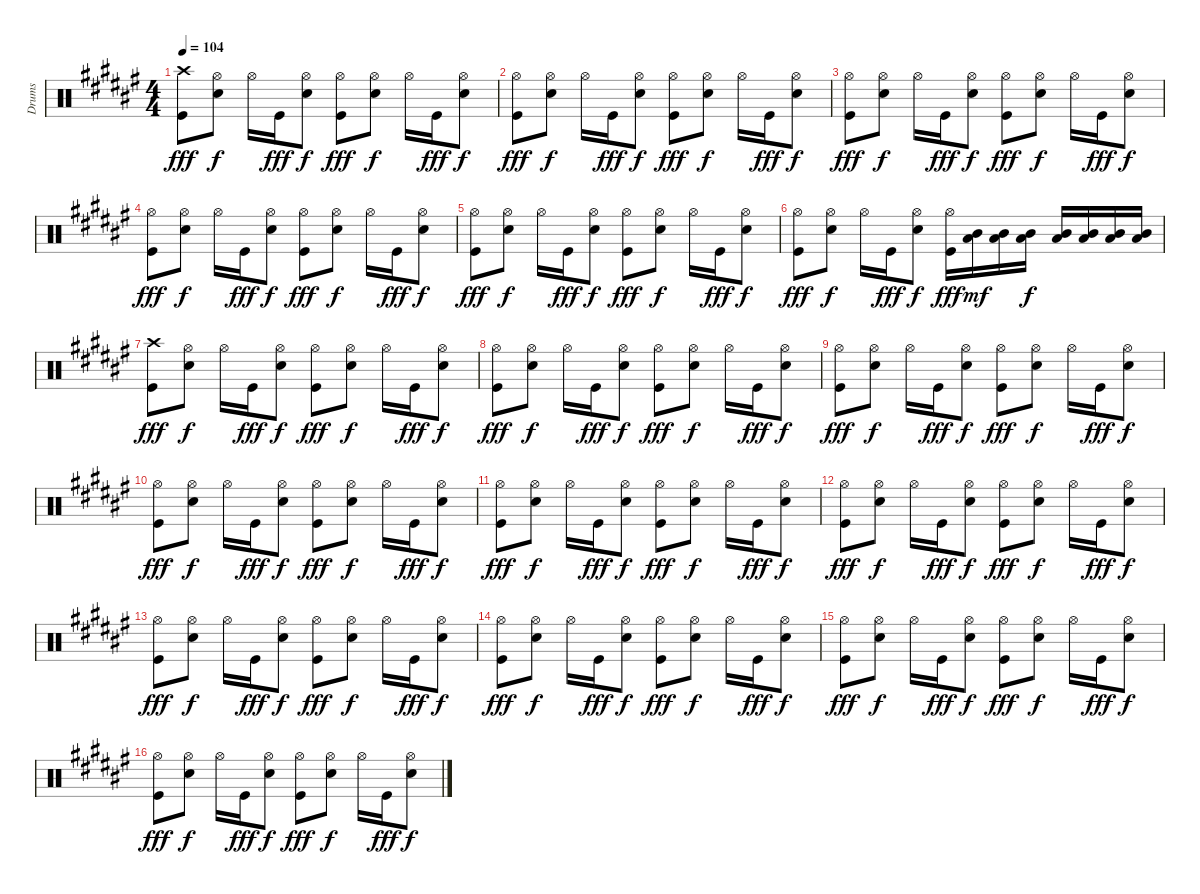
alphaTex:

\track ("Drums" "Drums") {instrument percussion}
\staff {score}
\articulation defaults
\ts (4 4)
\tempo 104
\clef neutral
\ks f#
("Crash high (hit)" "Kick (hit)").8{dy fff} ("Hi-Hat (open)" "Snare (hit) 2").8{dy f} "Hi-Hat (open)".16 "Kick (hit)".16{dy fff} ("Hi-Hat (open)" "Snare (hit) 2").8{dy f} ("Hi-Hat (open)" "Kick (hit)").8{dy fff} ("Hi-Hat (open)" "Snare (hit) 2").8{dy f} "Hi-Hat (open)".16 "Kick (hit)".16{dy fff} ("Hi-Hat (open)" "Snare (hit) 2").8{dy f} |
("Hi-Hat (open)" "Kick (hit)").8{dy fff} ("Hi-Hat (open)" "Snare (hit) 2").8{dy f} "Hi-Hat (open)".16 "Kick (hit)".16{dy fff} ("Hi-Hat (open)" "Snare (hit) 2").8{dy f} ("Hi-Hat (open)" "Kick (hit)").8{dy fff} ("Hi-Hat (open)" "Snare (hit) 2").8{dy f} "Hi-Hat (open)".16 "Kick (hit)".16{dy fff} ("Hi-Hat (open)" "Snare (hit) 2").8{dy f} |
("Hi-Hat (open)" "Kick (hit)").8{dy fff} ("Hi-Hat (open)" "Snare (hit) 2").8{dy f} "Hi-Hat (open)".16 "Kick (hit)".16{dy fff} ("Hi-Hat (open)" "Snare (hit) 2").8{dy f} ("Hi-Hat (open)" "Kick (hit)").8{dy fff} ("Hi-Hat (open)" "Snare (hit) 2").8{dy f} "Hi-Hat (open)".16 "Kick (hit)".16{dy fff} ("Hi-Hat (open)" "Snare (hit) 2").8{dy f} |
("Hi-Hat (open)" "Kick (hit)").8{dy fff} ("Hi-Hat (open)" "Snare (hit) 2").8{dy f} "Hi-Hat (open)".16 "Kick (hit)".16{dy fff} ("Hi-Hat (open)" "Snare (hit) 2").8{dy f} ("Hi-Hat (open)" "Kick (hit)").8{dy fff} ("Hi-Hat (open)" "Snare (hit) 2").8{dy f} "Hi-Hat (open)".16 "Kick (hit)".16{dy fff} ("Hi-Hat (open)" "Snare (hit) 2").8{dy f} |
("Hi-Hat (open)" "Kick (hit)").8{dy fff} ("Hi-Hat (open)" "Snare (hit) 2").8{dy f} "Hi-Hat (open)".16 "Kick (hit)".16{dy fff} ("Hi-Hat (open)" "Snare (hit) 2").8{dy f} ("Hi-Hat (open)" "Kick (hit)").8{dy fff} ("Hi-Hat (open)" "Snare (hit) 2").8{dy f} "Hi-Hat (open)".16 "Kick (hit)".16{dy fff} ("Hi-Hat (open)" "Snare (hit) 2").8{dy f} |
("Hi-Hat (open)" "Kick (hit)").8{dy fff} ("Hi-Hat (open)" "Snare (hit) 2").8{dy f} "Hi-Hat (open)".16 "Kick (hit)".16{dy fff} ("Hi-Hat (open)" "Snare (hit) 2").8{dy f} ("Hi-Hat (open)" "Kick (hit)").16{dy fff} ("Low Tom (hit)" "Mid Tom (hit)").16{dy mf} ("Low Tom (hit)" "Mid Tom (hit)").16 ("Low Tom (hit)" "Mid Tom (hit)").16{dy f} ("Low Tom (hit)" "Mid Tom (hit)").16 ("Low Tom (hit)" "Mid Tom (hit)").16 ("Low Tom (hit)" "Mid Tom (hit)").16 ("Low Tom (hit)" "Mid Tom (hit)").16 |
("Crash high (hit)" "Kick (hit)").8{dy fff} ("Hi-Hat (open)" "Snare (hit) 2").8{dy f} "Hi-Hat (open)".16 "Kick (hit)".16{dy fff} ("Hi-Hat (open)" "Snare (hit) 2").8{dy f} ("Hi-Hat (open)" "Kick (hit)").8{dy fff} ("Hi-Hat (open)" "Snare (hit) 2").8{dy f} "Hi-Hat (open)".16 "Kick (hit)".16{dy fff} ("Hi-Hat (open)" "Snare (hit) 2").8{dy f} |
("Hi-Hat (open)" "Kick (hit)").8{dy fff} ("Hi-Hat (open)" "Snare (hit) 2").8{dy f} "Hi-Hat (open)".16 "Kick (hit)".16{dy fff} ("Hi-Hat (open)" "Snare (hit) 2").8{dy f} ("Hi-Hat (open)" "Kick (hit)").8{dy fff} ("Hi-Hat (open)" "Snare (hit) 2").8{dy f} "Hi-Hat (open)".16 "Kick (hit)".16{dy fff} ("Hi-Hat (open)" "Snare (hit) 2").8{dy f} |
("Hi-Hat (open)" "Kick (hit)").8{dy fff} ("Hi-Hat (open)" "Snare (hit) 2").8{dy f} "Hi-Hat (open)".16 "Kick (hit)".16{dy fff} ("Hi-Hat (open)" "Snare (hit) 2").8{dy f} ("Hi-Hat (open)" "Kick (hit)").8{dy fff} ("Hi-Hat (open)" "Snare (hit) 2").8{dy f} "Hi-Hat (open)".16 "Kick (hit)".16{dy fff} ("Hi-Hat (open)" "Snare (hit) 2").8{dy f} |
("Hi-Hat (open)" "Kick (hit)").8{dy fff} ("Hi-Hat (open)" "Snare (hit) 2").8{dy f} "Hi-Hat (open)".16 "Kick (hit)".16{dy fff} ("Hi-Hat (open)" "Snare (hit) 2").8{dy f} ("Hi-Hat (open)" "Kick (hit)").8{dy fff} ("Hi-Hat (open)" "Snare (hit) 2").8{dy f} "Hi-Hat (open)".16 "Kick (hit)".16{dy fff} ("Hi-Hat (open)" "Snare (hit) 2").8{dy f} |
("Hi-Hat (open)" "Kick (hit)").8{dy fff} ("Hi-Hat (open)" "Snare (hit) 2").8{dy f} "Hi-Hat (open)".16 "Kick (hit)".16{dy fff} ("Hi-Hat (open)" "Snare (hit) 2").8{dy f} ("Hi-Hat (open)" "Kick (hit)").8{dy fff} ("Hi-Hat (open)" "Snare (hit) 2").8{dy f} "Hi-Hat (open)".16 "Kick (hit)".16{dy fff} ("Hi-Hat (open)" "Snare (hit) 2").8{dy f} |
("Hi-Hat (open)" "Kick (hit)").8{dy fff} ("Hi-Hat (open)" "Snare (hit) 2").8{dy f} "Hi-Hat (open)".16 "Kick (hit)".16{dy fff} ("Hi-Hat (open)" "Snare (hit) 2").8{dy f} ("Hi-Hat (open)" "Kick (hit)").8{dy fff} ("Hi-Hat (open)" "Snare (hit) 2").8{dy f} "Hi-Hat (open)".16 "Kick (hit)".16{dy fff} ("Hi-Hat (open)" "Snare (hit) 2").8{dy f} |
("Hi-Hat (open)" "Kick (hit)").8{dy fff} ("Hi-Hat (open)" "Snare (hit) 2").8{dy f} "Hi-Hat (open)".16 "Kick (hit)".16{dy fff} ("Hi-Hat (open)" "Snare (hit) 2").8{dy f} ("Hi-Hat (open)" "Kick (hit)").8{dy fff} ("Hi-Hat (open)" "Snare (hit) 2").8{dy f} "Hi-Hat (open)".16 "Kick (hit)".16{dy fff} ("Hi-Hat (open)" "Snare (hit) 2").8{dy f} |
("Hi-Hat (open)" "Kick (hit)").8{dy fff} ("Hi-Hat (open)" "Snare (hit) 2").8{dy f} "Hi-Hat (open)".16 "Kick (hit)".16{dy fff} ("Hi-Hat (open)" "Snare (hit) 2").8{dy f} ("Hi-Hat (open)" "Kick (hit)").8{dy fff} ("Hi-Hat (open)" "Snare (hit) 2").8{dy f} "Hi-Hat (open)".16 "Kick (hit)".16{dy fff} ("Hi-Hat (open)" "Snare (hit) 2").8{dy f} |
("Hi-Hat (open)" "Kick (hit)").8{dy fff} ("Hi-Hat (open)" "Snare (hit) 2").8{dy f} "Hi-Hat (open)".16 "Kick (hit)".16{dy fff} ("Hi-Hat (open)" "Snare (hit) 2").8{dy f} ("Hi-Hat (open)" "Kick (hit)").8{dy fff} ("Hi-Hat (open)" "Snare (hit) 2").8{dy f} "Hi-Hat (open)".16 "Kick (hit)".16{dy fff} ("Hi-Hat (open)" "Snare (hit) 2").8{dy f} |
("Hi-Hat (open)" "Kick (hit)").8{dy fff} ("Hi-Hat (open)" "Snare (hit) 2").8{dy f} "Hi-Hat (open)".16 "Kick (hit)".16{dy fff} ("Hi-Hat (open)" "Snare (hit) 2").8{dy f} ("Hi-Hat (open)" "Kick (hit)").8{dy fff} ("Hi-Hat (open)" "Snare (hit) 2").8{dy f} "Hi-Hat (open)".16 "Kick (hit)".16{dy fff} ("Hi-Hat (open)" "Snare (hit) 2").8{dy f}
